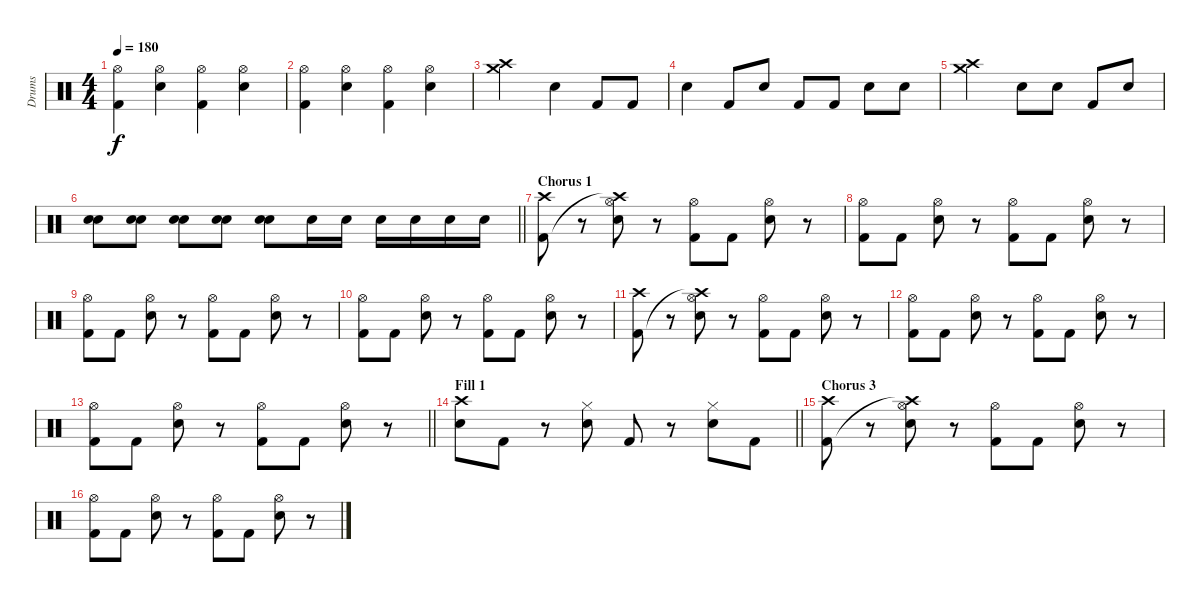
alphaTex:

\track ("Drums" "Drums") {instrument percussion}
\staff {score}
\articulation defaults
\ts (4 4)
\tempo 180
\clef neutral
\ks c
("Hi-Hat (open)" "Kick (hit) 2").4{dy f} ("Hi-Hat (open)" "Snare (hit) 2").4 ("Hi-Hat (open)" "Kick (hit) 2").4 ("Hi-Hat (open)" "Snare (hit) 2").4 |
("Hi-Hat (open)" "Kick (hit) 2").4 ("Hi-Hat (open)" "Snare (hit) 2").4 ("Hi-Hat (open)" "Kick (hit) 2").4 ("Hi-Hat (open)" "Snare (hit) 2").4 |
("Crash high (hit)" "Crash medium (hit)").2 "Snare (hit) 2".4 "Kick (hit) 2".8 "Kick (hit) 2".8 |
"Snare (hit) 2".4 "Kick (hit) 2".8 "Snare (hit) 2".8 "Kick (hit) 2".8 "Kick (hit) 2".8 "Snare (hit) 2".8 "Snare (hit) 2".8 |
("Crash high (hit)" "Crash medium (hit)").2 "Snare (hit) 2".8 "Snare (hit) 2".8 "Kick (hit) 2".8 "Snare (hit) 2".8 |
\barLineRight lightlight
("Snare (hit) 2" "Snare (hit) 2").8 ("Snare (hit) 2" "Snare (hit) 2").8 ("Snare (hit) 2" "Snare (hit) 2").8 ("Snare (hit) 2" "Snare (hit) 2").8 ("Snare (hit) 2" "Snare (hit) 2").8 "Snare (hit) 2".16 "Snare (hit) 2".16 "Snare (hit) 2".16 "Snare (hit) 2".16 "Snare (hit) 2".16 "Snare (hit) 2".16 |
\section ("" "Chorus 1")
("Crash high (hit)" "Kick (hit) 2").8 r.8 ("Hi-Hat (open)" "Crash high (hit)"{t} "Snare (hit) 2").8 r.8 ("Hi-Hat (open)" "Kick (hit) 2").8 "Kick (hit) 2".8 ("Hi-Hat (open)" "Snare (hit) 2").8 r.8 |
("Hi-Hat (open)" "Kick (hit) 2").8 "Kick (hit) 2".8 ("Hi-Hat (open)" "Snare (hit) 2").8 r.8 ("Hi-Hat (open)" "Kick (hit) 2").8 "Kick (hit) 2".8 ("Hi-Hat (open)" "Snare (hit) 2").8 r.8 |
("Hi-Hat (open)" "Kick (hit) 2").8 "Kick (hit) 2".8 ("Hi-Hat (open)" "Snare (hit) 2").8 r.8 ("Hi-Hat (open)" "Kick (hit) 2").8 "Kick (hit) 2".8 ("Hi-Hat (open)" "Snare (hit) 2").8 r.8 |
("Hi-Hat (open)" "Kick (hit) 2").8 "Kick (hit) 2".8 ("Hi-Hat (open)" "Snare (hit) 2").8 r.8 ("Hi-Hat (open)" "Kick (hit) 2").8 "Kick (hit) 2".8 ("Hi-Hat (open)" "Snare (hit) 2").8 r.8 |
("Crash high (hit)" "Kick (hit) 2").8 r.8 ("Hi-Hat (open)" "Crash high (hit)"{t} "Snare (hit) 2").8 r.8 ("Hi-Hat (open)" "Kick (hit) 2").8 "Kick (hit) 2".8 ("Hi-Hat (open)" "Snare (hit) 2").8 r.8 |
("Hi-Hat (open)" "Kick (hit) 2").8 "Kick (hit) 2".8 ("Hi-Hat (open)" "Snare (hit) 2").8 r.8 ("Hi-Hat (open)" "Kick (hit) 2").8 "Kick (hit) 2".8 ("Hi-Hat (open)" "Snare (hit) 2").8 r.8 |
\barLineRight lightlight
("Hi-Hat (open)" "Kick (hit) 2").8 "Kick (hit) 2".8 ("Hi-Hat (open)" "Snare (hit) 2").8 r.8 ("Hi-Hat (open)" "Kick (hit) 2").8 "Kick (hit) 2".8 ("Hi-Hat (open)" "Snare (hit) 2").8 r.8 |
\section ("" "Fill 1")
\barLineRight lightlight
("Crash high (hit)" "Snare (hit) 2").8 "Kick (hit) 2".8 r.8 ("Hi-Hat (closed)" "Snare (hit) 2").8 "Kick (hit) 2".8 r.8 ("Hi-Hat (closed)" "Snare (hit) 2").8 "Kick (hit) 2".8 |
\section ("" "Chorus 3")
("Crash high (hit)" "Kick (hit) 2").8 r.8 ("Hi-Hat (open)" "Crash high (hit)"{t} "Snare (hit) 2").8 r.8 ("Hi-Hat (open)" "Kick (hit) 2").8 "Kick (hit) 2".8 ("Hi-Hat (open)" "Snare (hit) 2").8 r.8 |
("Hi-Hat (open)" "Kick (hit) 2").8 "Kick (hit) 2".8 ("Hi-Hat (open)" "Snare (hit) 2").8 r.8 ("Hi-Hat (open)" "Kick (hit) 2").8 "Kick (hit) 2".8 ("Hi-Hat (open)" "Snare (hit) 2").8 r.8
